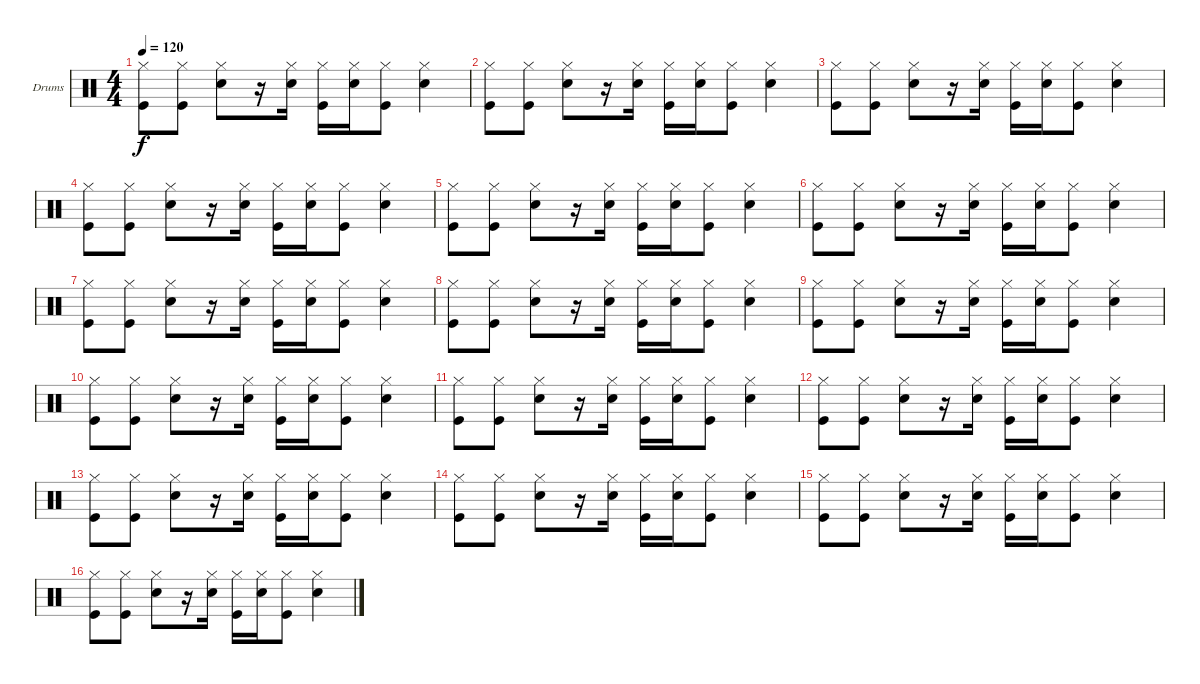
\defaultSystemsLayout 4
\bracketExtendMode groupsimilarinstruments
\firstSystemTrackNameOrientation horizontal
\otherSystemsTrackNameOrientation horizontal
\track ("Drum" "Drums") {instrument percussion}
\staff {score}
\articulation defaults
\ts (4 4)
\tempo 120
\clef neutral
\ks c
("Hi-Hat (closed)" "Kick (hit)").8{dy f} ("Hi-Hat (closed)" "Kick (hit)").8 ("Hi-Hat (closed)" "Snare (hit) 2").8 r.16 ("Hi-Hat (closed)" "Snare (hit) 2").16 ("Hi-Hat (closed)" "Kick (hit)").16 ("Hi-Hat (closed)" "Snare (hit) 2").16 ("Hi-Hat (closed)" "Kick (hit)").8 ("Hi-Hat (closed)" "Snare (hit) 2").4 |
("Hi-Hat (closed)" "Kick (hit)").8 ("Hi-Hat (closed)" "Kick (hit)").8 ("Hi-Hat (closed)" "Snare (hit) 2").8 r.16 ("Hi-Hat (closed)" "Snare (hit) 2").16 ("Hi-Hat (closed)" "Kick (hit)").16 ("Hi-Hat (closed)" "Snare (hit) 2").16 ("Hi-Hat (closed)" "Kick (hit)").8 ("Hi-Hat (closed)" "Snare (hit) 2").4 |
("Hi-Hat (closed)" "Kick (hit)").8 ("Hi-Hat (closed)" "Kick (hit)").8 ("Hi-Hat (closed)" "Snare (hit) 2").8 r.16 ("Hi-Hat (closed)" "Snare (hit) 2").16 ("Hi-Hat (closed)" "Kick (hit)").16 ("Hi-Hat (closed)" "Snare (hit) 2").16 ("Hi-Hat (closed)" "Kick (hit)").8 ("Hi-Hat (closed)" "Snare (hit) 2").4 |
("Hi-Hat (closed)" "Kick (hit)").8 ("Hi-Hat (closed)" "Kick (hit)").8 ("Hi-Hat (closed)" "Snare (hit) 2").8 r.16 ("Hi-Hat (closed)" "Snare (hit) 2").16 ("Hi-Hat (closed)" "Kick (hit)").16 ("Hi-Hat (closed)" "Snare (hit) 2").16 ("Hi-Hat (closed)" "Kick (hit)").8 ("Hi-Hat (closed)" "Snare (hit) 2").4 |
("Hi-Hat (closed)" "Kick (hit)").8 ("Hi-Hat (closed)" "Kick (hit)").8 ("Hi-Hat (closed)" "Snare (hit) 2").8 r.16 ("Hi-Hat (closed)" "Snare (hit) 2").16 ("Hi-Hat (closed)" "Kick (hit)").16 ("Hi-Hat (closed)" "Snare (hit) 2").16 ("Hi-Hat (closed)" "Kick (hit)").8 ("Hi-Hat (closed)" "Snare (hit) 2").4 |
("Hi-Hat (closed)" "Kick (hit)").8 ("Hi-Hat (closed)" "Kick (hit)").8 ("Hi-Hat (closed)" "Snare (hit) 2").8 r.16 ("Hi-Hat (closed)" "Snare (hit) 2").16 ("Hi-Hat (closed)" "Kick (hit)").16 ("Hi-Hat (closed)" "Snare (hit) 2").16 ("Hi-Hat (closed)" "Kick (hit)").8 ("Hi-Hat (closed)" "Snare (hit) 2").4 |
("Hi-Hat (closed)" "Kick (hit)").8 ("Hi-Hat (closed)" "Kick (hit)").8 ("Hi-Hat (closed)" "Snare (hit) 2").8 r.16 ("Hi-Hat (closed)" "Snare (hit) 2").16 ("Hi-Hat (closed)" "Kick (hit)").16 ("Hi-Hat (closed)" "Snare (hit) 2").16 ("Hi-Hat (closed)" "Kick (hit)").8 ("Hi-Hat (closed)" "Snare (hit) 2").4 |
("Hi-Hat (closed)" "Kick (hit)").8 ("Hi-Hat (closed)" "Kick (hit)").8 ("Hi-Hat (closed)" "Snare (hit) 2").8 r.16 ("Hi-Hat (closed)" "Snare (hit) 2").16 ("Hi-Hat (closed)" "Kick (hit)").16 ("Hi-Hat (closed)" "Snare (hit) 2").16 ("Hi-Hat (closed)" "Kick (hit)").8 ("Hi-Hat (closed)" "Snare (hit) 2").4 |
("Hi-Hat (closed)" "Kick (hit)").8 ("Hi-Hat (closed)" "Kick (hit)").8 ("Hi-Hat (closed)" "Snare (hit) 2").8 r.16 ("Hi-Hat (closed)" "Snare (hit) 2").16 ("Hi-Hat (closed)" "Kick (hit)").16 ("Hi-Hat (closed)" "Snare (hit) 2").16 ("Hi-Hat (closed)" "Kick (hit)").8 ("Hi-Hat (closed)" "Snare (hit) 2").4 |
("Hi-Hat (closed)" "Kick (hit)").8 ("Hi-Hat (closed)" "Kick (hit)").8 ("Hi-Hat (closed)" "Snare (hit) 2").8 r.16 ("Hi-Hat (closed)" "Snare (hit) 2").16 ("Hi-Hat (closed)" "Kick (hit)").16 ("Hi-Hat (closed)" "Snare (hit) 2").16 ("Hi-Hat (closed)" "Kick (hit)").8 ("Hi-Hat (closed)" "Snare (hit) 2").4 |
("Hi-Hat (closed)" "Kick (hit)").8 ("Hi-Hat (closed)" "Kick (hit)").8 ("Hi-Hat (closed)" "Snare (hit) 2").8 r.16 ("Hi-Hat (closed)" "Snare (hit) 2").16 ("Hi-Hat (closed)" "Kick (hit)").16 ("Hi-Hat (closed)" "Snare (hit) 2").16 ("Hi-Hat (closed)" "Kick (hit)").8 ("Hi-Hat (closed)" "Snare (hit) 2").4 |
("Hi-Hat (closed)" "Kick (hit)").8 ("Hi-Hat (closed)" "Kick (hit)").8 ("Hi-Hat (closed)" "Snare (hit) 2").8 r.16 ("Hi-Hat (closed)" "Snare (hit) 2").16 ("Hi-Hat (closed)" "Kick (hit)").16 ("Hi-Hat (closed)" "Snare (hit) 2").16 ("Hi-Hat (closed)" "Kick (hit)").8 ("Hi-Hat (closed)" "Snare (hit) 2").4 |
("Hi-Hat (closed)" "Kick (hit)").8 ("Hi-Hat (closed)" "Kick (hit)").8 ("Hi-Hat (closed)" "Snare (hit) 2").8 r.16 ("Hi-Hat (closed)" "Snare (hit) 2").16 ("Hi-Hat (closed)" "Kick (hit)").16 ("Hi-Hat (closed)" "Snare (hit) 2").16 ("Hi-Hat (closed)" "Kick (hit)").8 ("Hi-Hat (closed)" "Snare (hit) 2").4 |
("Hi-Hat (closed)" "Kick (hit)").8 ("Hi-Hat (closed)" "Kick (hit)").8 ("Hi-Hat (closed)" "Snare (hit) 2").8 r.16 ("Hi-Hat (closed)" "Snare (hit) 2").16 ("Hi-Hat (closed)" "Kick (hit)").16 ("Hi-Hat (closed)" "Snare (hit) 2").16 ("Hi-Hat (closed)" "Kick (hit)").8 ("Hi-Hat (closed)" "Snare (hit) 2").4 |
("Hi-Hat (closed)" "Kick (hit)").8 ("Hi-Hat (closed)" "Kick (hit)").8 ("Hi-Hat (closed)" "Snare (hit) 2").8 r.16 ("Hi-Hat (closed)" "Snare (hit) 2").16 ("Hi-Hat (closed)" "Kick (hit)").16 ("Hi-Hat (closed)" "Snare (hit) 2").16 ("Hi-Hat (closed)" "Kick (hit)").8 ("Hi-Hat (closed)" "Snare (hit) 2").4 |
("Hi-Hat (closed)" "Kick (hit)").8 ("Hi-Hat (closed)" "Kick (hit)").8 ("Hi-Hat (closed)" "Snare (hit) 2").8 r.16 ("Hi-Hat (closed)" "Snare (hit) 2").16 ("Hi-Hat (closed)" "Kick (hit)").16 ("Hi-Hat (closed)" "Snare (hit) 2").16 ("Hi-Hat (closed)" "Kick (hit)").8 ("Hi-Hat (closed)" "Snare (hit) 2").4
